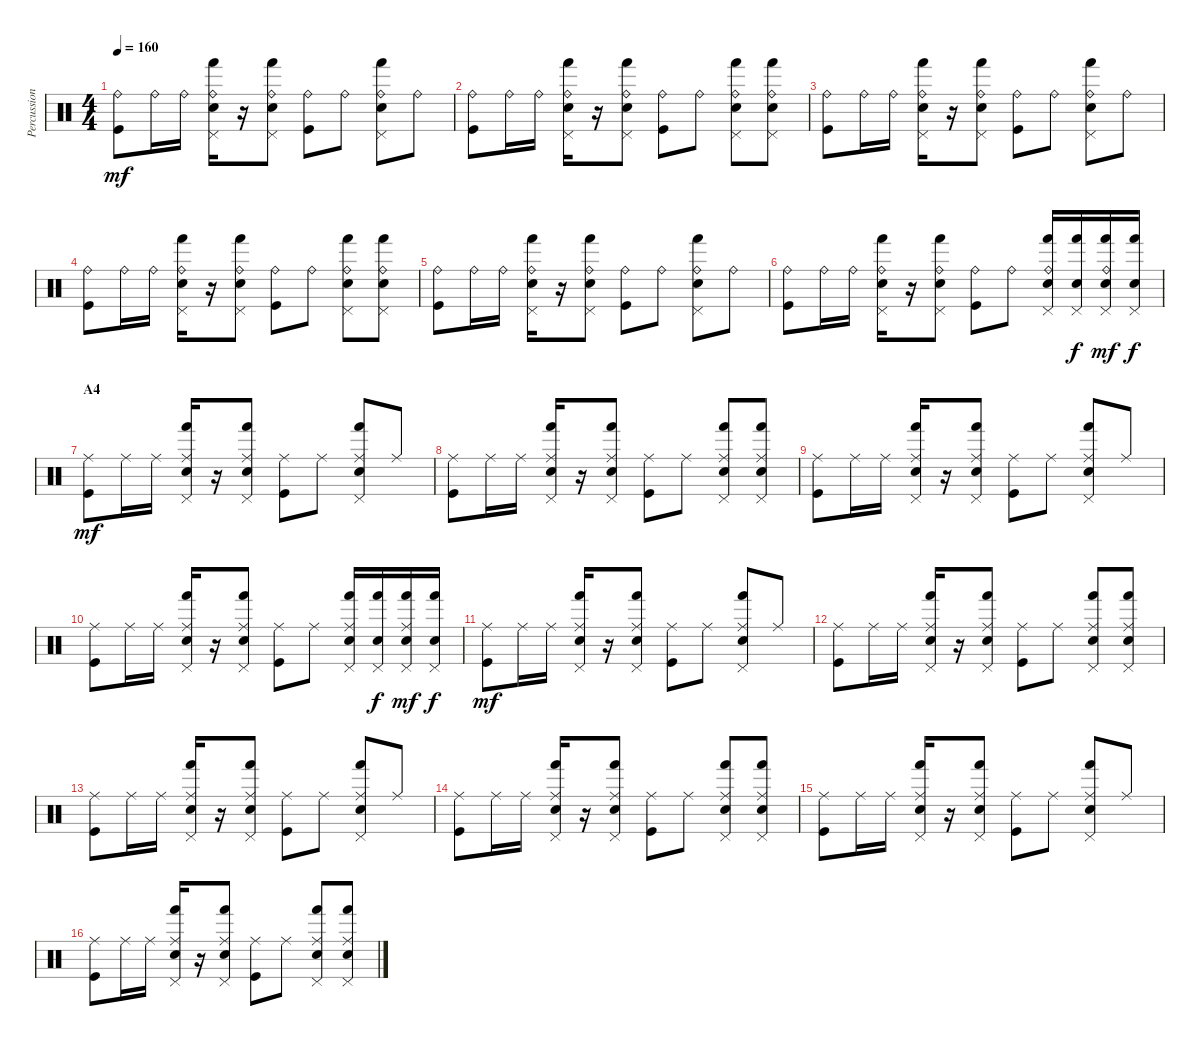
\track ("Percussion" "Percussion") {instrument percussion}
\staff {score}
\articulation defaults
\ts (4 4)
\tempo 160
\clef neutral
\ks c
("Ride (bell)" "Kick (hit)").8{dy mf} "Ride (bell)".16 "Ride (bell)".16 ("Ride (bell)" "Pedal Hi-Hat (hit)" "Hand (hit)" "Electric Snare (hit)").16 r.16 ("Ride (bell)" "Pedal Hi-Hat (hit)" "Hand (hit)" "Electric Snare (hit)").8 ("Ride (bell)" "Kick (hit)").8 "Ride (bell)".8 ("Ride (bell)" "Pedal Hi-Hat (hit)" "Hand (hit)" "Electric Snare (hit)").8 "Ride (bell)".8 |
("Ride (bell)" "Kick (hit)").8 "Ride (bell)".16 "Ride (bell)".16 ("Ride (bell)" "Pedal Hi-Hat (hit)" "Hand (hit)" "Electric Snare (hit)").16 r.16 ("Ride (bell)" "Pedal Hi-Hat (hit)" "Hand (hit)" "Electric Snare (hit)").8 ("Ride (bell)" "Kick (hit)").8 "Ride (bell)".8 ("Ride (bell)" "Pedal Hi-Hat (hit)" "Hand (hit)" "Electric Snare (hit)").8 ("Ride (bell)" "Pedal Hi-Hat (hit)" "Hand (hit)" "Electric Snare (hit)").8 |
("Ride (bell)" "Kick (hit)").8 "Ride (bell)".16 "Ride (bell)".16 ("Ride (bell)" "Pedal Hi-Hat (hit)" "Hand (hit)" "Electric Snare (hit)").16 r.16 ("Ride (bell)" "Pedal Hi-Hat (hit)" "Hand (hit)" "Electric Snare (hit)").8 ("Ride (bell)" "Kick (hit)").8 "Ride (bell)".8 ("Ride (bell)" "Pedal Hi-Hat (hit)" "Hand (hit)" "Electric Snare (hit)").8 "Ride (bell)".8 |
("Ride (bell)" "Kick (hit)").8 "Ride (bell)".16 "Ride (bell)".16 ("Ride (bell)" "Pedal Hi-Hat (hit)" "Hand (hit)" "Electric Snare (hit)").16 r.16 ("Ride (bell)" "Pedal Hi-Hat (hit)" "Hand (hit)" "Electric Snare (hit)").8 ("Ride (bell)" "Kick (hit)").8 "Ride (bell)".8 ("Ride (bell)" "Pedal Hi-Hat (hit)" "Hand (hit)" "Electric Snare (hit)").8 ("Ride (bell)" "Pedal Hi-Hat (hit)" "Hand (hit)" "Electric Snare (hit)").8 |
("Ride (bell)" "Kick (hit)").8 "Ride (bell)".16 "Ride (bell)".16 ("Ride (bell)" "Pedal Hi-Hat (hit)" "Hand (hit)" "Electric Snare (hit)").16 r.16 ("Ride (bell)" "Pedal Hi-Hat (hit)" "Hand (hit)" "Electric Snare (hit)").8 ("Ride (bell)" "Kick (hit)").8 "Ride (bell)".8 ("Ride (bell)" "Pedal Hi-Hat (hit)" "Hand (hit)" "Electric Snare (hit)").8 "Ride (bell)".8 |
("Ride (bell)" "Kick (hit)").8 "Ride (bell)".16 "Ride (bell)".16 ("Ride (bell)" "Pedal Hi-Hat (hit)" "Hand (hit)" "Electric Snare (hit)").16 r.16 ("Ride (bell)" "Pedal Hi-Hat (hit)" "Hand (hit)" "Electric Snare (hit)").8 ("Ride (bell)" "Kick (hit)").8 "Ride (bell)".8 ("Ride (bell)" "Pedal Hi-Hat (hit)" "Hand (hit)" "Electric Snare (hit)").16 ("Pedal Hi-Hat (hit)" "Hand (hit)" "Electric Snare (hit)").16{dy f} ("Ride (bell)" "Pedal Hi-Hat (hit)" "Hand (hit)" "Electric Snare (hit)").16{dy mf} ("Pedal Hi-Hat (hit)" "Hand (hit)" "Electric Snare (hit)").16{dy f} |
\section ("" "A4")
("Ride (middle)" "Kick (hit)").8{dy mf} "Ride (middle)".16 "Ride (middle)".16 ("Ride (middle)" "Pedal Hi-Hat (hit)" "Hand (hit)" "Electric Snare (hit)").16 r.16 ("Ride (middle)" "Pedal Hi-Hat (hit)" "Hand (hit)" "Electric Snare (hit)").8 ("Ride (middle)" "Kick (hit)").8 "Ride (middle)".8 ("Ride (middle)" "Pedal Hi-Hat (hit)" "Hand (hit)" "Electric Snare (hit)").8 "Ride (middle)".8 |
("Ride (middle)" "Kick (hit)").8 "Ride (middle)".16 "Ride (middle)".16 ("Ride (middle)" "Pedal Hi-Hat (hit)" "Hand (hit)" "Electric Snare (hit)").16 r.16 ("Ride (middle)" "Pedal Hi-Hat (hit)" "Hand (hit)" "Electric Snare (hit)").8 ("Ride (middle)" "Kick (hit)").8 "Ride (middle)".8 ("Ride (middle)" "Pedal Hi-Hat (hit)" "Hand (hit)" "Electric Snare (hit)").8 ("Ride (middle)" "Pedal Hi-Hat (hit)" "Hand (hit)" "Electric Snare (hit)").8 |
("Ride (middle)" "Kick (hit)").8 "Ride (middle)".16 "Ride (middle)".16 ("Ride (middle)" "Pedal Hi-Hat (hit)" "Hand (hit)" "Electric Snare (hit)").16 r.16 ("Ride (middle)" "Pedal Hi-Hat (hit)" "Hand (hit)" "Electric Snare (hit)").8 ("Ride (middle)" "Kick (hit)").8 "Ride (middle)".8 ("Ride (middle)" "Pedal Hi-Hat (hit)" "Hand (hit)" "Electric Snare (hit)").8 "Ride (middle)".8 |
("Ride (middle)" "Kick (hit)").8 "Ride (middle)".16 "Ride (middle)".16 ("Ride (middle)" "Pedal Hi-Hat (hit)" "Hand (hit)" "Electric Snare (hit)").16 r.16 ("Ride (middle)" "Pedal Hi-Hat (hit)" "Hand (hit)" "Electric Snare (hit)").8 ("Ride (middle)" "Kick (hit)").8 "Ride (middle)".8 ("Ride (middle)" "Pedal Hi-Hat (hit)" "Hand (hit)" "Electric Snare (hit)").16 ("Pedal Hi-Hat (hit)" "Hand (hit)" "Electric Snare (hit)").16{dy f} ("Ride (middle)" "Pedal Hi-Hat (hit)" "Hand (hit)" "Electric Snare (hit)").16{dy mf} ("Pedal Hi-Hat (hit)" "Hand (hit)" "Electric Snare (hit)").16{dy f} |
("Ride (middle)" "Kick (hit)").8{dy mf} "Ride (middle)".16 "Ride (middle)".16 ("Ride (middle)" "Pedal Hi-Hat (hit)" "Hand (hit)" "Electric Snare (hit)").16 r.16 ("Ride (middle)" "Pedal Hi-Hat (hit)" "Hand (hit)" "Electric Snare (hit)").8 ("Ride (middle)" "Kick (hit)").8 "Ride (middle)".8 ("Ride (middle)" "Pedal Hi-Hat (hit)" "Hand (hit)" "Electric Snare (hit)").8 "Ride (middle)".8 |
("Ride (middle)" "Kick (hit)").8 "Ride (middle)".16 "Ride (middle)".16 ("Ride (middle)" "Pedal Hi-Hat (hit)" "Hand (hit)" "Electric Snare (hit)").16 r.16 ("Ride (middle)" "Pedal Hi-Hat (hit)" "Hand (hit)" "Electric Snare (hit)").8 ("Ride (middle)" "Kick (hit)").8 "Ride (middle)".8 ("Ride (middle)" "Pedal Hi-Hat (hit)" "Hand (hit)" "Electric Snare (hit)").8 ("Ride (middle)" "Pedal Hi-Hat (hit)" "Hand (hit)" "Electric Snare (hit)").8 |
("Ride (middle)" "Kick (hit)").8 "Ride (middle)".16 "Ride (middle)".16 ("Ride (middle)" "Pedal Hi-Hat (hit)" "Hand (hit)" "Electric Snare (hit)").16 r.16 ("Ride (middle)" "Pedal Hi-Hat (hit)" "Hand (hit)" "Electric Snare (hit)").8 ("Ride (middle)" "Kick (hit)").8 "Ride (middle)".8 ("Ride (middle)" "Pedal Hi-Hat (hit)" "Hand (hit)" "Electric Snare (hit)").8 "Ride (middle)".8 |
("Ride (middle)" "Kick (hit)").8 "Ride (middle)".16 "Ride (middle)".16 ("Ride (middle)" "Pedal Hi-Hat (hit)" "Hand (hit)" "Electric Snare (hit)").16 r.16 ("Ride (middle)" "Pedal Hi-Hat (hit)" "Hand (hit)" "Electric Snare (hit)").8 ("Ride (middle)" "Kick (hit)").8 "Ride (middle)".8 ("Ride (middle)" "Pedal Hi-Hat (hit)" "Hand (hit)" "Electric Snare (hit)").8 ("Ride (middle)" "Pedal Hi-Hat (hit)" "Hand (hit)" "Electric Snare (hit)").8 |
("Ride (middle)" "Kick (hit)").8 "Ride (middle)".16 "Ride (middle)".16 ("Ride (middle)" "Pedal Hi-Hat (hit)" "Hand (hit)" "Electric Snare (hit)").16 r.16 ("Ride (middle)" "Pedal Hi-Hat (hit)" "Hand (hit)" "Electric Snare (hit)").8 ("Ride (middle)" "Kick (hit)").8 "Ride (middle)".8 ("Ride (middle)" "Pedal Hi-Hat (hit)" "Hand (hit)" "Electric Snare (hit)").8 "Ride (middle)".8 |
("Ride (middle)" "Kick (hit)").8 "Ride (middle)".16 "Ride (middle)".16 ("Ride (middle)" "Pedal Hi-Hat (hit)" "Hand (hit)" "Electric Snare (hit)").16 r.16 ("Ride (middle)" "Pedal Hi-Hat (hit)" "Hand (hit)" "Electric Snare (hit)").8 ("Ride (middle)" "Kick (hit)").8 "Ride (middle)".8 ("Ride (middle)" "Pedal Hi-Hat (hit)" "Hand (hit)" "Electric Snare (hit)").8 ("Ride (middle)" "Pedal Hi-Hat (hit)" "Hand (hit)" "Electric Snare (hit)").8
